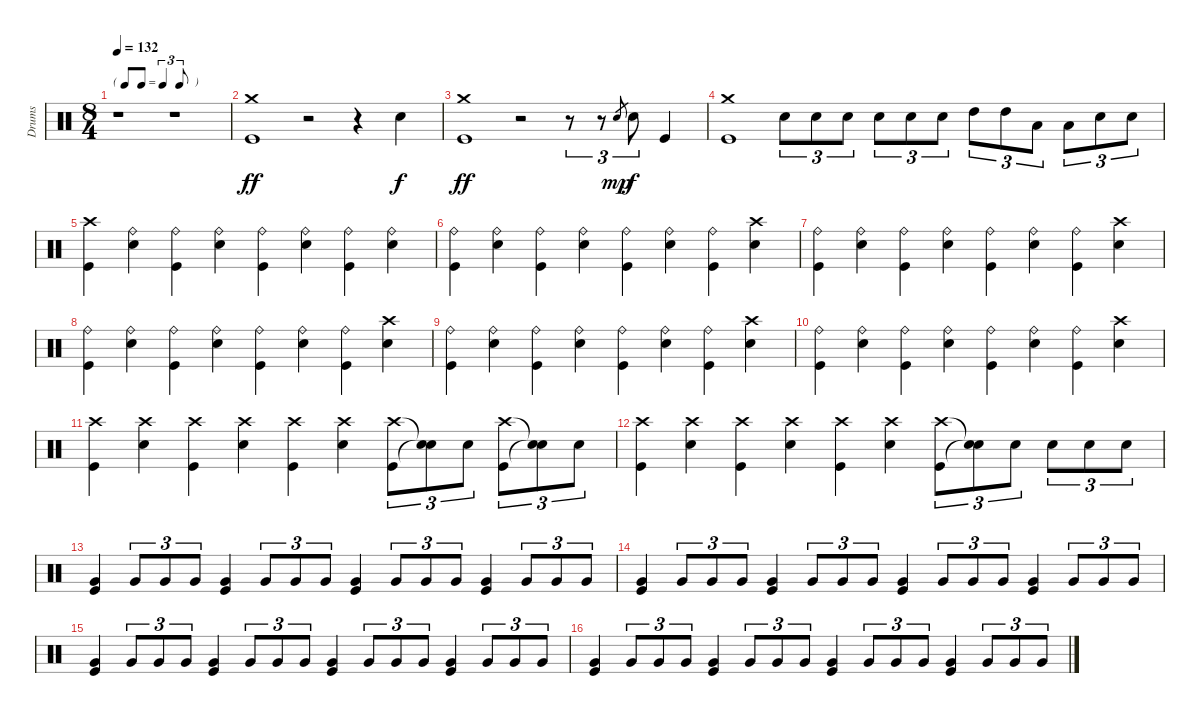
\track ("Drums" "Drums") {instrument percussion}
\staff {score}
\articulation defaults
\ts (8 4)
\tf triplet8th
\tempo 132
\clef neutral
\ks c
r.1{dy ff} r.1 |
("Crash medium (hit)" "Kick (hit)").1 r.2 r.4 "Electric Snare (hit)".4{dy f} |
("Crash medium (hit)" "Kick (hit)").1{dy ff} r.2 r.8{tu (3 2)} r.8{tu (3 2)} "Electric Snare (hit)".8{gr dy mp} "Electric Snare (hit)".8{tu (3 2) dy f} "Kick (hit)".4 |
("Crash medium (hit)" "Kick (hit)").1 "Electric Snare (hit)".8{tu (3 2)} "Electric Snare (hit)".8{tu (3 2)} "Electric Snare (hit)".8{tu (3 2)} "Electric Snare (hit)".8{tu (3 2)} "Electric Snare (hit)".8{tu (3 2)} "Electric Snare (hit)".8{tu (3 2)} "High Tom (hit)".8{tu (3 2)} "High Tom (hit)".8{tu (3 2)} "Low Tom (hit)".8{tu (3 2)} "Low Tom (hit)".8{tu (3 2)} "Electric Snare (hit)".8{tu (3 2)} "Electric Snare (hit)".8{tu (3 2)} |
("Crash high (hit)" "Kick (hit)").4 ("Ride (bell)" "Electric Snare (hit)").4 ("Ride (bell)" "Kick (hit)").4 ("Ride (bell)" "Electric Snare (hit)").4 ("Ride (bell)" "Kick (hit)").4 ("Ride (bell)" "Electric Snare (hit)").4 ("Ride (bell)" "Kick (hit)").4 ("Ride (bell)" "Electric Snare (hit)").4 |
("Ride (bell)" "Kick (hit)").4 ("Ride (bell)" "Electric Snare (hit)").4 ("Ride (bell)" "Kick (hit)").4 ("Ride (bell)" "Electric Snare (hit)").4 ("Ride (bell)" "Kick (hit)").4 ("Ride (bell)" "Electric Snare (hit)").4 ("Ride (bell)" "Kick (hit)").4 ("Crash high (hit)" "Electric Snare (hit)").4 |
("Ride (bell)" "Kick (hit)").4 ("Ride (bell)" "Electric Snare (hit)").4 ("Ride (bell)" "Kick (hit)").4 ("Ride (bell)" "Electric Snare (hit)").4 ("Ride (bell)" "Kick (hit)").4 ("Ride (bell)" "Electric Snare (hit)").4 ("Ride (bell)" "Kick (hit)").4 ("Crash high (hit)" "Electric Snare (hit)").4 |
("Ride (bell)" "Kick (hit)").4 ("Ride (bell)" "Electric Snare (hit)").4 ("Ride (bell)" "Kick (hit)").4 ("Ride (bell)" "Electric Snare (hit)").4 ("Ride (bell)" "Kick (hit)").4 ("Ride (bell)" "Electric Snare (hit)").4 ("Ride (bell)" "Kick (hit)").4 ("Crash high (hit)" "Electric Snare (hit)").4 |
("Ride (bell)" "Kick (hit)").4 ("Ride (bell)" "Electric Snare (hit)").4 ("Ride (bell)" "Kick (hit)").4 ("Ride (bell)" "Electric Snare (hit)").4 ("Ride (bell)" "Kick (hit)").4 ("Ride (bell)" "Electric Snare (hit)").4 ("Ride (bell)" "Kick (hit)").4 ("Crash high (hit)" "Electric Snare (hit)").4 |
("Ride (bell)" "Kick (hit)").4 ("Ride (bell)" "Electric Snare (hit)").4 ("Ride (bell)" "Kick (hit)").4 ("Ride (bell)" "Electric Snare (hit)").4 ("Ride (bell)" "Kick (hit)").4 ("Ride (bell)" "Electric Snare (hit)").4 ("Ride (bell)" "Kick (hit)").4 ("Crash high (hit)" "Electric Snare (hit)").4 |
("Crash high (hit)" "Kick (hit)").4 ("Crash high (hit)" "Electric Snare (hit)").4 ("Crash high (hit)" "Kick (hit)").4 ("Crash high (hit)" "Electric Snare (hit)").4 ("Crash high (hit)" "Kick (hit)").4 ("Crash high (hit)" "Electric Snare (hit)").4 ("Crash high (hit)" "Kick (hit)").8{tu (3 2)} ("Snare (hit)"{t} "Snare (hit)"{t}).8{tu (3 2)} "Electric Snare (hit)".8{tu (3 2)} ("Crash high (hit)" "Kick (hit)").8{tu (3 2)} ("Snare (hit)"{t} "Snare (hit)"{t}).8{tu (3 2)} "Electric Snare (hit)".8{tu (3 2)} |
("Crash high (hit)" "Kick (hit)").4 ("Crash high (hit)" "Electric Snare (hit)").4 ("Crash high (hit)" "Kick (hit)").4 ("Crash high (hit)" "Electric Snare (hit)").4 ("Crash high (hit)" "Kick (hit)").4 ("Crash high (hit)" "Electric Snare (hit)").4 ("Crash high (hit)" "Kick (hit)").8{tu (3 2)} ("Snare (hit)"{t} "Snare (hit)"{t}).8{tu (3 2)} "Electric Snare (hit)".8{tu (3 2)} "Electric Snare (hit)".8{tu (3 2)} "Electric Snare (hit)".8{tu (3 2)} "Electric Snare (hit)".8{tu (3 2)} |
("Very Low Tom (hit)" "Kick (hit)").4 "Very Low Tom (hit)".8{tu (3 2)} "Very Low Tom (hit)".8{tu (3 2)} "Very Low Tom (hit)".8{tu (3 2)} ("Very Low Tom (hit)" "Kick (hit)").4 "Very Low Tom (hit)".8{tu (3 2)} "Very Low Tom (hit)".8{tu (3 2)} "Very Low Tom (hit)".8{tu (3 2)} ("Very Low Tom (hit)" "Kick (hit)").4 "Very Low Tom (hit)".8{tu (3 2)} "Very Low Tom (hit)".8{tu (3 2)} "Very Low Tom (hit)".8{tu (3 2)} ("Very Low Tom (hit)" "Kick (hit)").4 "Very Low Tom (hit)".8{tu (3 2)} "Very Low Tom (hit)".8{tu (3 2)} "Very Low Tom (hit)".8{tu (3 2)} |
("Very Low Tom (hit)" "Kick (hit)").4 "Very Low Tom (hit)".8{tu (3 2)} "Very Low Tom (hit)".8{tu (3 2)} "Very Low Tom (hit)".8{tu (3 2)} ("Very Low Tom (hit)" "Kick (hit)").4 "Very Low Tom (hit)".8{tu (3 2)} "Very Low Tom (hit)".8{tu (3 2)} "Very Low Tom (hit)".8{tu (3 2)} ("Very Low Tom (hit)" "Kick (hit)").4 "Very Low Tom (hit)".8{tu (3 2)} "Very Low Tom (hit)".8{tu (3 2)} "Very Low Tom (hit)".8{tu (3 2)} ("Very Low Tom (hit)" "Kick (hit)").4 "Very Low Tom (hit)".8{tu (3 2)} "Very Low Tom (hit)".8{tu (3 2)} "Very Low Tom (hit)".8{tu (3 2)} |
("Very Low Tom (hit)" "Kick (hit)").4 "Very Low Tom (hit)".8{tu (3 2)} "Very Low Tom (hit)".8{tu (3 2)} "Very Low Tom (hit)".8{tu (3 2)} ("Very Low Tom (hit)" "Kick (hit)").4 "Very Low Tom (hit)".8{tu (3 2)} "Very Low Tom (hit)".8{tu (3 2)} "Very Low Tom (hit)".8{tu (3 2)} ("Very Low Tom (hit)" "Kick (hit)").4 "Very Low Tom (hit)".8{tu (3 2)} "Very Low Tom (hit)".8{tu (3 2)} "Very Low Tom (hit)".8{tu (3 2)} ("Very Low Tom (hit)" "Kick (hit)").4 "Very Low Tom (hit)".8{tu (3 2)} "Very Low Tom (hit)".8{tu (3 2)} "Very Low Tom (hit)".8{tu (3 2)} |
("Very Low Tom (hit)" "Kick (hit)").4 "Very Low Tom (hit)".8{tu (3 2)} "Very Low Tom (hit)".8{tu (3 2)} "Very Low Tom (hit)".8{tu (3 2)} ("Very Low Tom (hit)" "Kick (hit)").4 "Very Low Tom (hit)".8{tu (3 2)} "Very Low Tom (hit)".8{tu (3 2)} "Very Low Tom (hit)".8{tu (3 2)} ("Very Low Tom (hit)" "Kick (hit)").4 "Very Low Tom (hit)".8{tu (3 2)} "Very Low Tom (hit)".8{tu (3 2)} "Very Low Tom (hit)".8{tu (3 2)} ("Very Low Tom (hit)" "Kick (hit)").4 "Very Low Tom (hit)".8{tu (3 2)} "Very Low Tom (hit)".8{tu (3 2)} "Very Low Tom (hit)".8{tu (3 2)}
